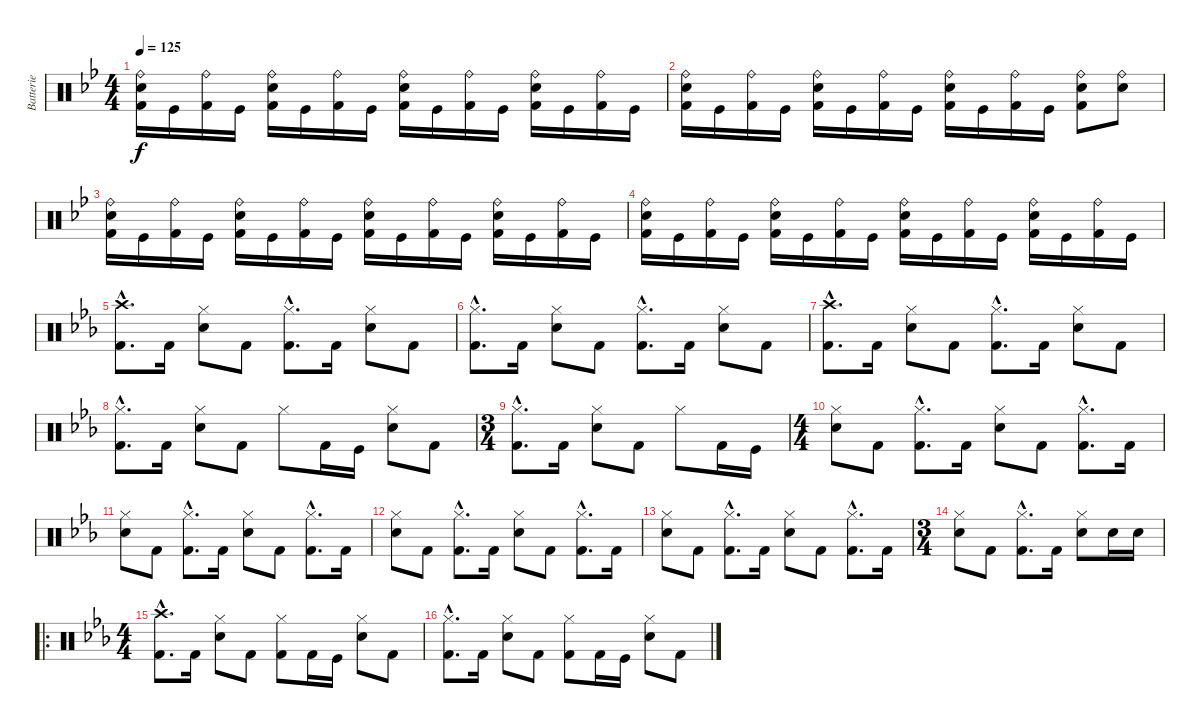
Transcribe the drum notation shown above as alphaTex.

\track ("Batterie" "Batterie") {instrument percussion}
\staff {score}
\articulation defaults
\ts (4 4)
\tempo 125
\clef neutral
\ks bb
("Ride (bell)" "Electric Snare (hit)" "Kick (hit) 2").16{dy f} "Kick (hit)".16 ("Ride (bell)" "Kick (hit) 2").16 "Kick (hit)".16 ("Ride (bell)" "Electric Snare (hit)" "Kick (hit) 2").16 "Kick (hit)".16 ("Ride (bell)" "Kick (hit) 2").16 "Kick (hit)".16 ("Ride (bell)" "Electric Snare (hit)" "Kick (hit) 2").16 "Kick (hit)".16 ("Ride (bell)" "Kick (hit) 2").16 "Kick (hit)".16 ("Ride (bell)" "Electric Snare (hit)" "Kick (hit) 2").16 "Kick (hit)".16 ("Ride (bell)" "Kick (hit) 2").16 "Kick (hit)".16 |
("Ride (bell)" "Electric Snare (hit)" "Kick (hit) 2").16 "Kick (hit)".16 ("Ride (bell)" "Kick (hit) 2").16 "Kick (hit)".16 ("Ride (bell)" "Electric Snare (hit)" "Kick (hit) 2").16 "Kick (hit)".16 ("Ride (bell)" "Kick (hit) 2").16 "Kick (hit)".16 ("Ride (bell)" "Electric Snare (hit)" "Kick (hit) 2").16 "Kick (hit)".16 ("Ride (bell)" "Kick (hit) 2").16 "Kick (hit)".16 ("Ride (bell)" "Electric Snare (hit)" "Kick (hit) 2").8 ("Ride (bell)" "Electric Snare (hit)").8 |
("Ride (bell)" "Electric Snare (hit)" "Kick (hit) 2").16 "Kick (hit)".16 ("Ride (bell)" "Kick (hit) 2").16 "Kick (hit)".16 ("Ride (bell)" "Electric Snare (hit)" "Kick (hit) 2").16 "Kick (hit)".16 ("Ride (bell)" "Kick (hit) 2").16 "Kick (hit)".16 ("Ride (bell)" "Electric Snare (hit)" "Kick (hit) 2").16 "Kick (hit)".16 ("Ride (bell)" "Kick (hit) 2").16 "Kick (hit)".16 ("Ride (bell)" "Electric Snare (hit)" "Kick (hit) 2").16 "Kick (hit)".16 ("Ride (bell)" "Kick (hit) 2").16 "Kick (hit)".16 |
("Ride (bell)" "Electric Snare (hit)" "Kick (hit) 2").16 "Kick (hit)".16 ("Ride (bell)" "Kick (hit) 2").16 "Kick (hit)".16 ("Ride (bell)" "Electric Snare (hit)" "Kick (hit) 2").16 "Kick (hit)".16 ("Ride (bell)" "Kick (hit) 2").16 "Kick (hit)".16 ("Ride (bell)" "Electric Snare (hit)" "Kick (hit) 2").16 "Kick (hit)".16 ("Ride (bell)" "Kick (hit) 2").16 "Kick (hit)".16 ("Ride (bell)" "Electric Snare (hit)" "Kick (hit) 2").16 "Kick (hit)".16 ("Ride (bell)" "Kick (hit) 2").16 "Kick (hit)".16 |
\ks eb
("Crash high (hit)"{hac} "Kick (hit) 2"{hac}).8{d} "Kick (hit) 2".16 ("Hi-Hat (closed)" "Electric Snare (hit)").8 "Kick (hit) 2".8 ("Hi-Hat (closed)"{hac} "Kick (hit) 2"{hac}).8{d} "Kick (hit) 2".16 ("Hi-Hat (closed)" "Electric Snare (hit)").8 "Kick (hit) 2".8 |
("Hi-Hat (closed)"{hac} "Kick (hit) 2"{hac}).8{d} "Kick (hit) 2".16 ("Hi-Hat (closed)" "Electric Snare (hit)").8 "Kick (hit) 2".8 ("Hi-Hat (closed)"{hac} "Kick (hit) 2"{hac}).8{d} "Kick (hit) 2".16 ("Hi-Hat (closed)" "Electric Snare (hit)").8 "Kick (hit) 2".8 |
("Crash high (hit)"{hac} "Kick (hit) 2"{hac}).8{d} "Kick (hit) 2".16 ("Hi-Hat (closed)" "Electric Snare (hit)").8 "Kick (hit) 2".8 ("Hi-Hat (closed)"{hac} "Kick (hit) 2"{hac}).8{d} "Kick (hit) 2".16 ("Hi-Hat (closed)" "Electric Snare (hit)").8 "Kick (hit) 2".8 |
("Hi-Hat (closed)"{hac} "Kick (hit) 2"{hac}).8{d} "Kick (hit) 2".16 ("Hi-Hat (closed)" "Electric Snare (hit)").8 "Kick (hit) 2".8 "Hi-Hat (closed)".8 "Kick (hit) 2".16 "Kick (hit)".16 ("Hi-Hat (closed)" "Electric Snare (hit)").8 "Kick (hit) 2".8 |
\ts (3 4)
("Hi-Hat (closed)"{hac} "Kick (hit) 2"{hac}).8{d} "Kick (hit) 2".16 ("Hi-Hat (closed)" "Electric Snare (hit)").8 "Kick (hit) 2".8 "Hi-Hat (closed)".8 "Kick (hit) 2".16 "Kick (hit)".16 |
\ts (4 4)
("Hi-Hat (closed)" "Electric Snare (hit)").8 "Kick (hit) 2".8 ("Hi-Hat (closed)"{hac} "Kick (hit) 2"{hac}).8{d} "Kick (hit) 2".16 ("Hi-Hat (closed)" "Electric Snare (hit)").8 "Kick (hit) 2".8 ("Hi-Hat (closed)"{hac} "Kick (hit) 2"{hac}).8{d} "Kick (hit) 2".16 |
("Hi-Hat (closed)" "Electric Snare (hit)").8 "Kick (hit) 2".8 ("Hi-Hat (closed)"{hac} "Kick (hit) 2"{hac}).8{d} "Kick (hit) 2".16 ("Hi-Hat (closed)" "Electric Snare (hit)").8 "Kick (hit) 2".8 ("Hi-Hat (closed)"{hac} "Kick (hit) 2"{hac}).8{d} "Kick (hit) 2".16 |
("Hi-Hat (closed)" "Electric Snare (hit)").8 "Kick (hit) 2".8 ("Hi-Hat (closed)"{hac} "Kick (hit) 2"{hac}).8{d} "Kick (hit) 2".16 ("Hi-Hat (closed)" "Electric Snare (hit)").8 "Kick (hit) 2".8 ("Hi-Hat (closed)"{hac} "Kick (hit) 2"{hac}).8{d} "Kick (hit) 2".16 |
("Hi-Hat (closed)" "Electric Snare (hit)").8 "Kick (hit) 2".8 ("Hi-Hat (closed)"{hac} "Kick (hit) 2"{hac}).8{d} "Kick (hit) 2".16 ("Hi-Hat (closed)" "Electric Snare (hit)").8 "Kick (hit) 2".8 ("Hi-Hat (closed)"{hac} "Kick (hit) 2"{hac}).8{d} "Kick (hit) 2".16 |
\ts (3 4)
("Hi-Hat (closed)" "Electric Snare (hit)").8 "Kick (hit) 2".8 ("Hi-Hat (closed)"{hac} "Kick (hit) 2"{hac}).8{d} "Kick (hit) 2".16 ("Hi-Hat (closed)" "Electric Snare (hit)").8 "Electric Snare (hit)".16 "Electric Snare (hit)".16 |
\ro
\ts (4 4)
("Crash high (hit)"{hac} "Kick (hit) 2"{hac}).8{d} "Kick (hit) 2".16 ("Hi-Hat (closed)" "Electric Snare (hit)").8 "Kick (hit) 2".8 ("Hi-Hat (closed)" "Kick (hit) 2").8 "Kick (hit) 2".16 "Kick (hit)".16 ("Hi-Hat (closed)" "Electric Snare (hit)").8 "Kick (hit) 2".8 |
("Hi-Hat (closed)"{hac} "Kick (hit) 2"{hac}).8{d} "Kick (hit) 2".16 ("Hi-Hat (closed)" "Electric Snare (hit)").8 "Kick (hit) 2".8 ("Hi-Hat (closed)" "Kick (hit) 2").8 "Kick (hit) 2".16 "Kick (hit)".16 ("Hi-Hat (closed)" "Electric Snare (hit)").8 "Kick (hit) 2".8
